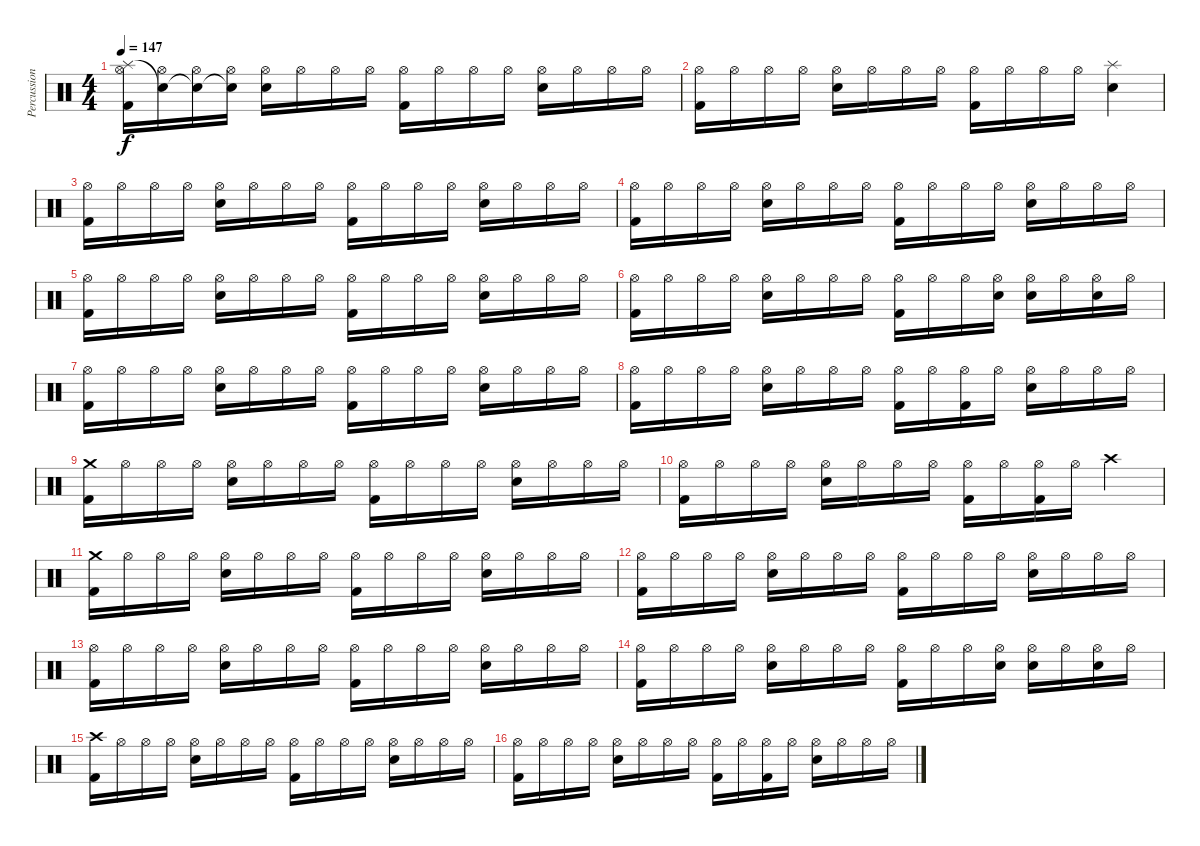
\track ("Percussion" "Percussion") {instrument percussion}
\staff {score}
\articulation defaults
\ts (4 4)
\tempo 147
\clef neutral
\ks c
("Hi-Hat (open)" "Splash (hit)" "Kick (hit) 2").16{dy f} ("Hi-Hat (open)" "Snare (hit)"{t}).16 ("Hi-Hat (open)" "Snare (hit)"{t}).16 ("Hi-Hat (open)" "Snare (hit)"{t}).16 ("Hi-Hat (open)" "Snare (hit) 2").16 "Hi-Hat (open)".16 "Hi-Hat (open)".16 "Hi-Hat (open)".16 ("Hi-Hat (open)" "Kick (hit) 2").16 "Hi-Hat (open)".16 "Hi-Hat (open)".16 "Hi-Hat (open)".16 ("Hi-Hat (open)" "Snare (hit) 2").16 "Hi-Hat (open)".16 "Hi-Hat (open)".16 "Hi-Hat (open)".16 |
("Hi-Hat (open)" "Kick (hit) 2").16 "Hi-Hat (open)".16 "Hi-Hat (open)".16 "Hi-Hat (open)".16 ("Hi-Hat (open)" "Snare (hit) 2").16 "Hi-Hat (open)".16 "Hi-Hat (open)".16 "Hi-Hat (open)".16 ("Hi-Hat (open)" "Kick (hit) 2").16 "Hi-Hat (open)".16 "Hi-Hat (open)".16 "Hi-Hat (open)".16 ("Splash (hit)" "Snare (hit) 2").4 |
("Hi-Hat (open)" "Kick (hit) 2").16 "Hi-Hat (open)".16 "Hi-Hat (open)".16 "Hi-Hat (open)".16 ("Hi-Hat (open)" "Snare (hit) 2").16 "Hi-Hat (open)".16 "Hi-Hat (open)".16 "Hi-Hat (open)".16 ("Hi-Hat (open)" "Kick (hit) 2").16 "Hi-Hat (open)".16 "Hi-Hat (open)".16 "Hi-Hat (open)".16 ("Hi-Hat (open)" "Snare (hit) 2").16 "Hi-Hat (open)".16 "Hi-Hat (open)".16 "Hi-Hat (open)".16 |
("Hi-Hat (open)" "Kick (hit) 2").16 "Hi-Hat (open)".16 "Hi-Hat (open)".16 "Hi-Hat (open)".16 ("Hi-Hat (open)" "Snare (hit) 2").16 "Hi-Hat (open)".16 "Hi-Hat (open)".16 "Hi-Hat (open)".16 ("Hi-Hat (open)" "Kick (hit) 2").16 "Hi-Hat (open)".16 "Hi-Hat (open)".16 "Hi-Hat (open)".16 ("Hi-Hat (open)" "Snare (hit) 2").16 "Hi-Hat (open)".16 "Hi-Hat (open)".16 "Hi-Hat (open)".16 |
("Hi-Hat (open)" "Kick (hit) 2").16 "Hi-Hat (open)".16 "Hi-Hat (open)".16 "Hi-Hat (open)".16 ("Hi-Hat (open)" "Snare (hit) 2").16 "Hi-Hat (open)".16 "Hi-Hat (open)".16 "Hi-Hat (open)".16 ("Hi-Hat (open)" "Kick (hit) 2").16 "Hi-Hat (open)".16 "Hi-Hat (open)".16 "Hi-Hat (open)".16 ("Hi-Hat (open)" "Snare (hit) 2").16 "Hi-Hat (open)".16 "Hi-Hat (open)".16 "Hi-Hat (open)".16 |
("Hi-Hat (open)" "Kick (hit) 2").16 "Hi-Hat (open)".16 "Hi-Hat (open)".16 "Hi-Hat (open)".16 ("Hi-Hat (open)" "Snare (hit) 2").16 "Hi-Hat (open)".16 "Hi-Hat (open)".16 "Hi-Hat (open)".16 ("Hi-Hat (open)" "Kick (hit) 2").16 "Hi-Hat (open)".16 "Hi-Hat (open)".16 ("Hi-Hat (open)" "Snare (hit) 2").16 ("Hi-Hat (open)" "Snare (hit) 2").16 "Hi-Hat (open)".16 ("Hi-Hat (open)" "Snare (hit) 2").16 "Hi-Hat (open)".16 |
("Hi-Hat (open)" "Kick (hit) 2").16 "Hi-Hat (open)".16 "Hi-Hat (open)".16 "Hi-Hat (open)".16 ("Hi-Hat (open)" "Snare (hit) 2").16 "Hi-Hat (open)".16 "Hi-Hat (open)".16 "Hi-Hat (open)".16 ("Hi-Hat (open)" "Kick (hit) 2").16 "Hi-Hat (open)".16 "Hi-Hat (open)".16 "Hi-Hat (open)".16 ("Hi-Hat (open)" "Snare (hit) 2").16 "Hi-Hat (open)".16 "Hi-Hat (open)".16 "Hi-Hat (open)".16 |
("Hi-Hat (open)" "Kick (hit) 2").16 "Hi-Hat (open)".16 "Hi-Hat (open)".16 "Hi-Hat (open)".16 ("Hi-Hat (open)" "Snare (hit) 2").16 "Hi-Hat (open)".16 "Hi-Hat (open)".16 "Hi-Hat (open)".16 ("Hi-Hat (open)" "Kick (hit) 2").16 "Hi-Hat (open)".16 ("Hi-Hat (open)" "Kick (hit) 2").16 "Hi-Hat (open)".16 ("Hi-Hat (open)" "Snare (hit) 2").16 "Hi-Hat (open)".16 "Hi-Hat (open)".16 "Hi-Hat (open)".16 |
("Crash medium (hit)" "Kick (hit) 2").16 "Hi-Hat (open)".16 "Hi-Hat (open)".16 "Hi-Hat (open)".16 ("Hi-Hat (open)" "Snare (hit) 2").16 "Hi-Hat (open)".16 "Hi-Hat (open)".16 "Hi-Hat (open)".16 ("Hi-Hat (open)" "Kick (hit) 2").16 "Hi-Hat (open)".16 "Hi-Hat (open)".16 "Hi-Hat (open)".16 ("Hi-Hat (open)" "Snare (hit) 2").16 "Hi-Hat (open)".16 "Hi-Hat (open)".16 "Hi-Hat (open)".16 |
("Hi-Hat (open)" "Kick (hit) 2").16 "Hi-Hat (open)".16 "Hi-Hat (open)".16 "Hi-Hat (open)".16 ("Hi-Hat (open)" "Snare (hit) 2").16 "Hi-Hat (open)".16 "Hi-Hat (open)".16 "Hi-Hat (open)".16 ("Hi-Hat (open)" "Kick (hit) 2").16 "Hi-Hat (open)".16 ("Hi-Hat (open)" "Kick (hit) 2").16 "Hi-Hat (open)".16 "Crash high (hit)".4 |
("Crash medium (hit)" "Kick (hit) 2").16 "Hi-Hat (open)".16 "Hi-Hat (open)".16 "Hi-Hat (open)".16 ("Hi-Hat (open)" "Snare (hit) 2").16 "Hi-Hat (open)".16 "Hi-Hat (open)".16 "Hi-Hat (open)".16 ("Hi-Hat (open)" "Kick (hit) 2").16 "Hi-Hat (open)".16 "Hi-Hat (open)".16 "Hi-Hat (open)".16 ("Hi-Hat (open)" "Snare (hit) 2").16 "Hi-Hat (open)".16 "Hi-Hat (open)".16 "Hi-Hat (open)".16 |
("Hi-Hat (open)" "Kick (hit) 2").16 "Hi-Hat (open)".16 "Hi-Hat (open)".16 "Hi-Hat (open)".16 ("Hi-Hat (open)" "Snare (hit) 2").16 "Hi-Hat (open)".16 "Hi-Hat (open)".16 "Hi-Hat (open)".16 ("Hi-Hat (open)" "Kick (hit) 2").16 "Hi-Hat (open)".16 "Hi-Hat (open)".16 "Hi-Hat (open)".16 ("Hi-Hat (open)" "Snare (hit) 2").16 "Hi-Hat (open)".16 "Hi-Hat (open)".16 "Hi-Hat (open)".16 |
("Hi-Hat (open)" "Kick (hit) 2").16 "Hi-Hat (open)".16 "Hi-Hat (open)".16 "Hi-Hat (open)".16 ("Hi-Hat (open)" "Snare (hit) 2").16 "Hi-Hat (open)".16 "Hi-Hat (open)".16 "Hi-Hat (open)".16 ("Hi-Hat (open)" "Kick (hit) 2").16 "Hi-Hat (open)".16 "Hi-Hat (open)".16 "Hi-Hat (open)".16 ("Hi-Hat (open)" "Snare (hit) 2").16 "Hi-Hat (open)".16 "Hi-Hat (open)".16 "Hi-Hat (open)".16 |
("Hi-Hat (open)" "Kick (hit) 2").16 "Hi-Hat (open)".16 "Hi-Hat (open)".16 "Hi-Hat (open)".16 ("Hi-Hat (open)" "Snare (hit) 2").16 "Hi-Hat (open)".16 "Hi-Hat (open)".16 "Hi-Hat (open)".16 ("Hi-Hat (open)" "Kick (hit) 2").16 "Hi-Hat (open)".16 "Hi-Hat (open)".16 ("Hi-Hat (open)" "Snare (hit) 2").16 ("Hi-Hat (open)" "Snare (hit) 2").16 "Hi-Hat (open)".16 ("Hi-Hat (open)" "Snare (hit) 2").16 "Hi-Hat (open)".16 |
("Crash high (hit)" "Kick (hit) 2").16 "Hi-Hat (open)".16 "Hi-Hat (open)".16 "Hi-Hat (open)".16 ("Hi-Hat (open)" "Snare (hit) 2").16 "Hi-Hat (open)".16 "Hi-Hat (open)".16 "Hi-Hat (open)".16 ("Hi-Hat (open)" "Kick (hit) 2").16 "Hi-Hat (open)".16 "Hi-Hat (open)".16 "Hi-Hat (open)".16 ("Hi-Hat (open)" "Snare (hit) 2").16 "Hi-Hat (open)".16 "Hi-Hat (open)".16 "Hi-Hat (open)".16 |
("Hi-Hat (open)" "Kick (hit) 2").16 "Hi-Hat (open)".16 "Hi-Hat (open)".16 "Hi-Hat (open)".16 ("Hi-Hat (open)" "Snare (hit) 2").16 "Hi-Hat (open)".16 "Hi-Hat (open)".16 "Hi-Hat (open)".16 ("Hi-Hat (open)" "Kick (hit) 2").16 "Hi-Hat (open)".16 ("Hi-Hat (open)" "Kick (hit) 2").16 "Hi-Hat (open)".16 ("Hi-Hat (open)" "Snare (hit) 2").16 "Hi-Hat (open)".16 "Hi-Hat (open)".16 "Hi-Hat (open)".16
